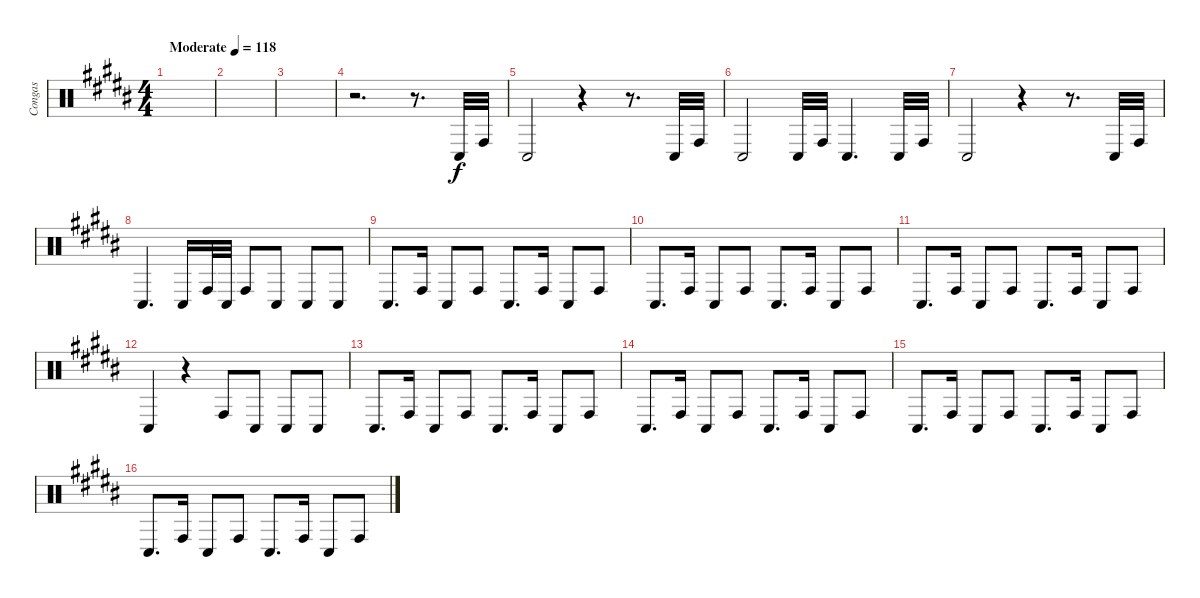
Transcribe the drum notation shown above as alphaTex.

\track ("Congas" "Congas") {instrument percussion}
\staff {score}
\articulation defaults
\ts (4 4)
\tempo (118 "Moderate")
\clef neutral
\ks b
|
|
|
r.2{d} r.8{d} "Conga low (hit)".32 "Conga high (hit)".32 |
"Conga low (hit)".2 r.4 r.8{d} "Conga low (hit)".32 "Conga high (hit)".32 |
"Conga low (hit)".2 "Conga low (hit)".32 "Conga high (hit)".32 "Conga low (hit)".4{d} "Conga low (hit)".32 "Conga high (hit)".32 |
"Conga low (hit)".2 r.4 r.8{d} "Conga low (hit)".32 "Conga high (hit)".32 |
"Conga low (hit)".4{d} "Conga low (hit)".16 "Conga high (hit)".32 "Conga low (hit)".32 "Conga high (hit)".8 "Conga low (hit)".8 "Conga low (hit)".8 "Conga low (hit)".8 |
"Conga low (hit)".8{d} "Conga high (hit)".16 "Conga low (hit)".8 "Conga high (hit)".8 "Conga low (hit)".8{d} "Conga high (hit)".16 "Conga low (hit)".8 "Conga high (hit)".8 |
"Conga low (hit)".8{d} "Conga high (hit)".16 "Conga low (hit)".8 "Conga high (hit)".8 "Conga low (hit)".8{d} "Conga high (hit)".16 "Conga low (hit)".8 "Conga high (hit)".8 |
"Conga low (hit)".8{d} "Conga high (hit)".16 "Conga low (hit)".8 "Conga high (hit)".8 "Conga low (hit)".8{d} "Conga high (hit)".16 "Conga low (hit)".8 "Conga high (hit)".8 |
"Conga low (hit)".4 r.4 "Conga high (hit)".8 "Conga low (hit)".8 "Conga low (hit)".8 "Conga low (hit)".8 |
"Conga low (hit)".8{d} "Conga high (hit)".16 "Conga low (hit)".8 "Conga high (hit)".8 "Conga low (hit)".8{d} "Conga high (hit)".16 "Conga low (hit)".8 "Conga high (hit)".8 |
"Conga low (hit)".8{d} "Conga high (hit)".16 "Conga low (hit)".8 "Conga high (hit)".8 "Conga low (hit)".8{d} "Conga high (hit)".16 "Conga low (hit)".8 "Conga high (hit)".8 |
"Conga low (hit)".8{d} "Conga high (hit)".16 "Conga low (hit)".8 "Conga high (hit)".8 "Conga low (hit)".8{d} "Conga high (hit)".16 "Conga low (hit)".8 "Conga high (hit)".8 |
"Conga low (hit)".8{d} "Conga high (hit)".16 "Conga low (hit)".8 "Conga high (hit)".8 "Conga low (hit)".8{d} "Conga high (hit)".16 "Conga low (hit)".8 "Conga high (hit)".8
